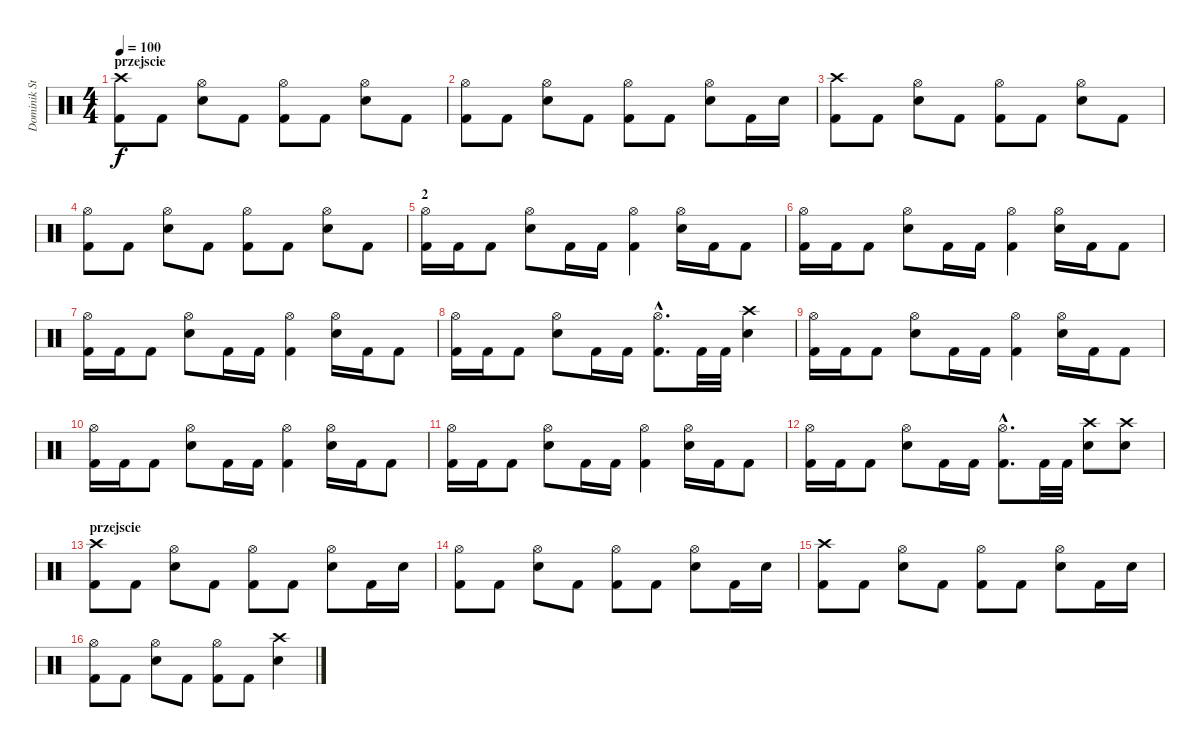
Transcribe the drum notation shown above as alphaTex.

\track ("Dominik Storch" "Dominik St") {instrument percussion}
\staff {score}
\articulation defaults
\ts (4 4)
\section ("" "przejscie")
\tempo 100
\clef neutral
\ks c
("Crash high (hit)" "Kick (hit) 2").8{dy f} "Kick (hit) 2".8 ("Hi-Hat (open)" "Snare (hit) 2").8 "Kick (hit) 2".8 ("Hi-Hat (open)" "Kick (hit) 2").8 "Kick (hit) 2".8 ("Hi-Hat (open)" "Snare (hit) 2").8 "Kick (hit) 2".8 |
("Hi-Hat (open)" "Kick (hit) 2").8 "Kick (hit) 2".8 ("Hi-Hat (open)" "Snare (hit) 2").8 "Kick (hit) 2".8 ("Hi-Hat (open)" "Kick (hit) 2").8 "Kick (hit) 2".8 ("Hi-Hat (open)" "Snare (hit) 2").8 "Kick (hit) 2".16 "Snare (hit) 2".16 |
("Crash high (hit)" "Kick (hit) 2").8 "Kick (hit) 2".8 ("Hi-Hat (open)" "Snare (hit) 2").8 "Kick (hit) 2".8 ("Hi-Hat (open)" "Kick (hit) 2").8 "Kick (hit) 2".8 ("Hi-Hat (open)" "Snare (hit) 2").8 "Kick (hit) 2".8 |
("Hi-Hat (open)" "Kick (hit) 2").8 "Kick (hit) 2".8 ("Hi-Hat (open)" "Snare (hit) 2").8 "Kick (hit) 2".8 ("Hi-Hat (open)" "Kick (hit) 2").8 "Kick (hit) 2".8 ("Hi-Hat (open)" "Snare (hit) 2").8 "Kick (hit) 2".8 |
\section ("" "2")
("Hi-Hat (open)" "Kick (hit) 2").16 "Kick (hit) 2".16 "Kick (hit) 2".8 ("Hi-Hat (open)" "Snare (hit) 2").8 "Kick (hit) 2".16 "Kick (hit) 2".16 ("Hi-Hat (open)" "Kick (hit) 2").4 ("Hi-Hat (open)" "Snare (hit) 2").16 "Kick (hit) 2".16 "Kick (hit) 2".8 |
("Hi-Hat (open)" "Kick (hit) 2").16 "Kick (hit) 2".16 "Kick (hit) 2".8 ("Hi-Hat (open)" "Snare (hit) 2").8 "Kick (hit) 2".16 "Kick (hit) 2".16 ("Hi-Hat (open)" "Kick (hit) 2").4 ("Hi-Hat (open)" "Snare (hit) 2").16 "Kick (hit) 2".16 "Kick (hit) 2".8 |
("Hi-Hat (open)" "Kick (hit) 2").16 "Kick (hit) 2".16 "Kick (hit) 2".8 ("Hi-Hat (open)" "Snare (hit) 2").8 "Kick (hit) 2".16 "Kick (hit) 2".16 ("Hi-Hat (open)" "Kick (hit) 2").4 ("Hi-Hat (open)" "Snare (hit) 2").16 "Kick (hit) 2".16 "Kick (hit) 2".8 |
("Hi-Hat (open)" "Kick (hit) 2").16 "Kick (hit) 2".16 "Kick (hit) 2".8 ("Hi-Hat (open)" "Snare (hit) 2").8 "Kick (hit) 2".16 "Kick (hit) 2".16 ("Hi-Hat (open)"{hac} "Kick (hit) 2"{hac}).8{d} "Kick (hit) 2".32 "Kick (hit) 2".32 ("Crash high (hit)" "Snare (hit) 2").4 |
("Hi-Hat (open)" "Kick (hit) 2").16 "Kick (hit) 2".16 "Kick (hit) 2".8 ("Hi-Hat (open)" "Snare (hit) 2").8 "Kick (hit) 2".16 "Kick (hit) 2".16 ("Hi-Hat (open)" "Kick (hit) 2").4 ("Hi-Hat (open)" "Snare (hit) 2").16 "Kick (hit) 2".16 "Kick (hit) 2".8 |
("Hi-Hat (open)" "Kick (hit) 2").16 "Kick (hit) 2".16 "Kick (hit) 2".8 ("Hi-Hat (open)" "Snare (hit) 2").8 "Kick (hit) 2".16 "Kick (hit) 2".16 ("Hi-Hat (open)" "Kick (hit) 2").4 ("Hi-Hat (open)" "Snare (hit) 2").16 "Kick (hit) 2".16 "Kick (hit) 2".8 |
("Hi-Hat (open)" "Kick (hit) 2").16 "Kick (hit) 2".16 "Kick (hit) 2".8 ("Hi-Hat (open)" "Snare (hit) 2").8 "Kick (hit) 2".16 "Kick (hit) 2".16 ("Hi-Hat (open)" "Kick (hit) 2").4 ("Hi-Hat (open)" "Snare (hit) 2").16 "Kick (hit) 2".16 "Kick (hit) 2".8 |
("Hi-Hat (open)" "Kick (hit) 2").16 "Kick (hit) 2".16 "Kick (hit) 2".8 ("Hi-Hat (open)" "Snare (hit) 2").8 "Kick (hit) 2".16 "Kick (hit) 2".16 ("Hi-Hat (open)"{hac} "Kick (hit) 2"{hac}).8{d} "Kick (hit) 2".32 "Kick (hit) 2".32 ("Crash high (hit)" "Snare (hit) 2").8 ("Crash high (hit)" "Snare (hit) 2").8 |
\section ("" "przejscie")
("Crash high (hit)" "Kick (hit) 2").8 "Kick (hit) 2".8 ("Hi-Hat (open)" "Snare (hit) 2").8 "Kick (hit) 2".8 ("Hi-Hat (open)" "Kick (hit) 2").8 "Kick (hit) 2".8 ("Hi-Hat (open)" "Snare (hit) 2").8 "Kick (hit) 2".16 "Snare (hit) 2".16 |
("Hi-Hat (open)" "Kick (hit) 2").8 "Kick (hit) 2".8 ("Hi-Hat (open)" "Snare (hit) 2").8 "Kick (hit) 2".8 ("Hi-Hat (open)" "Kick (hit) 2").8 "Kick (hit) 2".8 ("Hi-Hat (open)" "Snare (hit) 2").8 "Kick (hit) 2".16 "Snare (hit) 2".16 |
("Crash high (hit)" "Kick (hit) 2").8 "Kick (hit) 2".8 ("Hi-Hat (open)" "Snare (hit) 2").8 "Kick (hit) 2".8 ("Hi-Hat (open)" "Kick (hit) 2").8 "Kick (hit) 2".8 ("Hi-Hat (open)" "Snare (hit) 2").8 "Kick (hit) 2".16 "Snare (hit) 2".16 |
("Hi-Hat (open)" "Kick (hit) 2").8 "Kick (hit) 2".8 ("Hi-Hat (open)" "Snare (hit) 2").8 "Kick (hit) 2".8 ("Hi-Hat (open)" "Kick (hit) 2").8 "Kick (hit) 2".8 ("Crash high (hit)" "Snare (hit) 2").4
